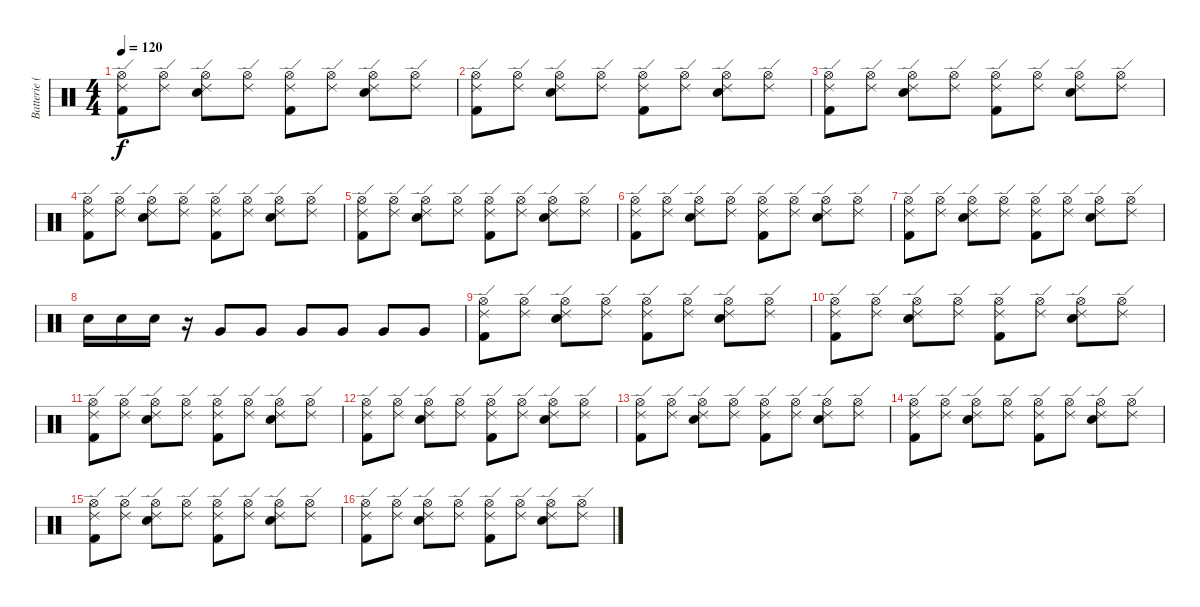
\track ("Batterie (David Lovering)" "Batterie (") {instrument percussion}
\staff {score}
\articulation defaults
\ts (4 4)
\tempo 120
\clef neutral
\ks c
("Ride (edge) 2" "Hi-Hat (open)" "Kick (hit) 2").8{dy f} ("Ride (edge) 2" "Hi-Hat (open)").8 ("Ride (edge) 2" "Hi-Hat (open)" "Electric Snare (hit)").8 ("Ride (edge) 2" "Hi-Hat (open)").8 ("Ride (edge) 2" "Hi-Hat (open)" "Kick (hit) 2").8 ("Ride (edge) 2" "Hi-Hat (open)").8 ("Ride (edge) 2" "Hi-Hat (open)" "Electric Snare (hit)").8 ("Ride (edge) 2" "Hi-Hat (open)").8 |
("Ride (edge) 2" "Hi-Hat (open)" "Kick (hit) 2").8 ("Ride (edge) 2" "Hi-Hat (open)").8 ("Ride (edge) 2" "Hi-Hat (open)" "Electric Snare (hit)").8 ("Ride (edge) 2" "Hi-Hat (open)").8 ("Ride (edge) 2" "Hi-Hat (open)" "Kick (hit) 2").8 ("Ride (edge) 2" "Hi-Hat (open)").8 ("Ride (edge) 2" "Hi-Hat (open)" "Electric Snare (hit)").8 ("Ride (edge) 2" "Hi-Hat (open)").8 |
("Ride (edge) 2" "Hi-Hat (open)" "Kick (hit) 2").8 ("Ride (edge) 2" "Hi-Hat (open)").8 ("Ride (edge) 2" "Hi-Hat (open)" "Electric Snare (hit)").8 ("Ride (edge) 2" "Hi-Hat (open)").8 ("Ride (edge) 2" "Hi-Hat (open)" "Kick (hit) 2").8 ("Ride (edge) 2" "Hi-Hat (open)").8 ("Ride (edge) 2" "Hi-Hat (open)" "Electric Snare (hit)").8 ("Ride (edge) 2" "Hi-Hat (open)").8 |
("Ride (edge) 2" "Hi-Hat (open)" "Kick (hit) 2").8 ("Ride (edge) 2" "Hi-Hat (open)").8 ("Ride (edge) 2" "Hi-Hat (open)" "Electric Snare (hit)").8 ("Ride (edge) 2" "Hi-Hat (open)").8 ("Ride (edge) 2" "Hi-Hat (open)" "Kick (hit) 2").8 ("Ride (edge) 2" "Hi-Hat (open)").8 ("Ride (edge) 2" "Hi-Hat (open)" "Electric Snare (hit)").8 ("Ride (edge) 2" "Hi-Hat (open)").8 |
("Ride (edge) 2" "Hi-Hat (open)" "Kick (hit) 2").8 ("Ride (edge) 2" "Hi-Hat (open)").8 ("Ride (edge) 2" "Hi-Hat (open)" "Electric Snare (hit)").8 ("Ride (edge) 2" "Hi-Hat (open)").8 ("Ride (edge) 2" "Hi-Hat (open)" "Kick (hit) 2").8 ("Ride (edge) 2" "Hi-Hat (open)").8 ("Ride (edge) 2" "Hi-Hat (open)" "Electric Snare (hit)").8 ("Ride (edge) 2" "Hi-Hat (open)").8 |
("Ride (edge) 2" "Hi-Hat (open)" "Kick (hit) 2").8 ("Ride (edge) 2" "Hi-Hat (open)").8 ("Ride (edge) 2" "Hi-Hat (open)" "Electric Snare (hit)").8 ("Ride (edge) 2" "Hi-Hat (open)").8 ("Ride (edge) 2" "Hi-Hat (open)" "Kick (hit) 2").8 ("Ride (edge) 2" "Hi-Hat (open)").8 ("Ride (edge) 2" "Hi-Hat (open)" "Electric Snare (hit)").8 ("Ride (edge) 2" "Hi-Hat (open)").8 |
("Ride (edge) 2" "Hi-Hat (open)" "Kick (hit) 2").8 ("Ride (edge) 2" "Hi-Hat (open)").8 ("Ride (edge) 2" "Hi-Hat (open)" "Electric Snare (hit)").8 ("Ride (edge) 2" "Hi-Hat (open)").8 ("Ride (edge) 2" "Hi-Hat (open)" "Kick (hit) 2").8 ("Ride (edge) 2" "Hi-Hat (open)").8 ("Ride (edge) 2" "Hi-Hat (open)" "Electric Snare (hit)").8 ("Ride (edge) 2" "Hi-Hat (open)").8 |
"Snare (hit) 2".16 "Snare (hit) 2".16 "Snare (hit) 2".16 r.16 "Very Low Tom (hit)".8 "Very Low Tom (hit)".8 "Very Low Tom (hit)".8 "Very Low Tom (hit)".8 "Very Low Tom (hit)".8 "Very Low Tom (hit)".8 |
("Ride (edge) 2" "Hi-Hat (open)" "Kick (hit) 2").8 ("Ride (edge) 2" "Hi-Hat (open)").8 ("Ride (edge) 2" "Hi-Hat (open)" "Electric Snare (hit)").8 ("Ride (edge) 2" "Hi-Hat (open)").8 ("Ride (edge) 2" "Hi-Hat (open)" "Kick (hit) 2").8 ("Ride (edge) 2" "Hi-Hat (open)").8 ("Ride (edge) 2" "Hi-Hat (open)" "Electric Snare (hit)").8 ("Ride (edge) 2" "Hi-Hat (open)").8 |
("Ride (edge) 2" "Hi-Hat (open)" "Kick (hit) 2").8 ("Ride (edge) 2" "Hi-Hat (open)").8 ("Ride (edge) 2" "Hi-Hat (open)" "Electric Snare (hit)").8 ("Ride (edge) 2" "Hi-Hat (open)").8 ("Ride (edge) 2" "Hi-Hat (open)" "Kick (hit) 2").8 ("Ride (edge) 2" "Hi-Hat (open)").8 ("Ride (edge) 2" "Hi-Hat (open)" "Electric Snare (hit)").8 ("Ride (edge) 2" "Hi-Hat (open)").8 |
("Ride (edge) 2" "Hi-Hat (open)" "Kick (hit) 2").8 ("Ride (edge) 2" "Hi-Hat (open)").8 ("Ride (edge) 2" "Hi-Hat (open)" "Electric Snare (hit)").8 ("Ride (edge) 2" "Hi-Hat (open)").8 ("Ride (edge) 2" "Hi-Hat (open)" "Kick (hit) 2").8 ("Ride (edge) 2" "Hi-Hat (open)").8 ("Ride (edge) 2" "Hi-Hat (open)" "Electric Snare (hit)").8 ("Ride (edge) 2" "Hi-Hat (open)").8 |
("Ride (edge) 2" "Hi-Hat (open)" "Kick (hit) 2").8 ("Ride (edge) 2" "Hi-Hat (open)").8 ("Ride (edge) 2" "Hi-Hat (open)" "Electric Snare (hit)").8 ("Ride (edge) 2" "Hi-Hat (open)").8 ("Ride (edge) 2" "Hi-Hat (open)" "Kick (hit) 2").8 ("Ride (edge) 2" "Hi-Hat (open)").8 ("Ride (edge) 2" "Hi-Hat (open)" "Electric Snare (hit)").8 ("Ride (edge) 2" "Hi-Hat (open)").8 |
("Ride (edge) 2" "Hi-Hat (open)" "Kick (hit) 2").8 ("Ride (edge) 2" "Hi-Hat (open)").8 ("Ride (edge) 2" "Hi-Hat (open)" "Electric Snare (hit)").8 ("Ride (edge) 2" "Hi-Hat (open)").8 ("Ride (edge) 2" "Hi-Hat (open)" "Kick (hit) 2").8 ("Ride (edge) 2" "Hi-Hat (open)").8 ("Ride (edge) 2" "Hi-Hat (open)" "Electric Snare (hit)").8 ("Ride (edge) 2" "Hi-Hat (open)").8 |
("Ride (edge) 2" "Hi-Hat (open)" "Kick (hit) 2").8 ("Ride (edge) 2" "Hi-Hat (open)").8 ("Ride (edge) 2" "Hi-Hat (open)" "Electric Snare (hit)").8 ("Ride (edge) 2" "Hi-Hat (open)").8 ("Ride (edge) 2" "Hi-Hat (open)" "Kick (hit) 2").8 ("Ride (edge) 2" "Hi-Hat (open)").8 ("Ride (edge) 2" "Hi-Hat (open)" "Electric Snare (hit)").8 ("Ride (edge) 2" "Hi-Hat (open)").8 |
("Ride (edge) 2" "Hi-Hat (open)" "Kick (hit) 2").8 ("Ride (edge) 2" "Hi-Hat (open)").8 ("Ride (edge) 2" "Hi-Hat (open)" "Electric Snare (hit)").8 ("Ride (edge) 2" "Hi-Hat (open)").8 ("Ride (edge) 2" "Hi-Hat (open)" "Kick (hit) 2").8 ("Ride (edge) 2" "Hi-Hat (open)").8 ("Ride (edge) 2" "Hi-Hat (open)" "Electric Snare (hit)").8 ("Ride (edge) 2" "Hi-Hat (open)").8 |
("Ride (edge) 2" "Hi-Hat (open)" "Kick (hit) 2").8 ("Ride (edge) 2" "Hi-Hat (open)").8 ("Ride (edge) 2" "Hi-Hat (open)" "Electric Snare (hit)").8 ("Ride (edge) 2" "Hi-Hat (open)").8 ("Ride (edge) 2" "Hi-Hat (open)" "Kick (hit) 2").8 ("Ride (edge) 2" "Hi-Hat (open)").8 ("Ride (edge) 2" "Hi-Hat (open)" "Electric Snare (hit)").8 ("Ride (edge) 2" "Hi-Hat (open)").8
